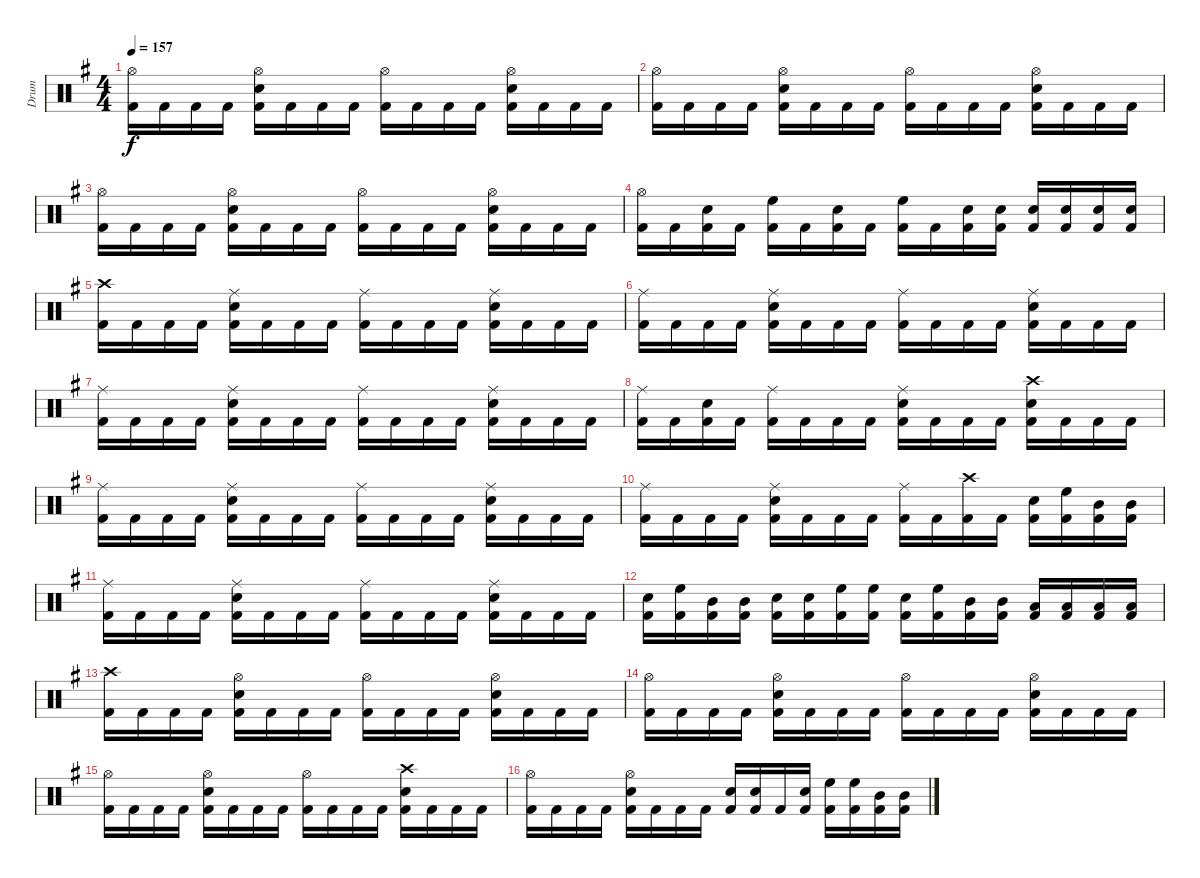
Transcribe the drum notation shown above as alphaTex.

\track ("Drum" "Drum") {instrument percussion}
\staff {score}
\articulation defaults
\ts (4 4)
\tempo 157
\clef neutral
\ks eminor
("Hi-Hat (open)" "Kick (hit) 2").16{dy f} "Kick (hit) 2".16 "Kick (hit) 2".16 "Kick (hit) 2".16 ("Hi-Hat (open)" "Snare (hit) 2" "Kick (hit) 2").16 "Kick (hit) 2".16 "Kick (hit) 2".16 "Kick (hit) 2".16 ("Hi-Hat (open)" "Kick (hit) 2").16 "Kick (hit) 2".16 "Kick (hit) 2".16 "Kick (hit) 2".16 ("Hi-Hat (open)" "Snare (hit) 2" "Kick (hit) 2").16 "Kick (hit) 2".16 "Kick (hit) 2".16 "Kick (hit) 2".16 |
("Hi-Hat (open)" "Kick (hit) 2").16 "Kick (hit) 2".16 "Kick (hit) 2".16 "Kick (hit) 2".16 ("Hi-Hat (open)" "Snare (hit) 2" "Kick (hit) 2").16 "Kick (hit) 2".16 "Kick (hit) 2".16 "Kick (hit) 2".16 ("Hi-Hat (open)" "Kick (hit) 2").16 "Kick (hit) 2".16 "Kick (hit) 2".16 "Kick (hit) 2".16 ("Hi-Hat (open)" "Snare (hit) 2" "Kick (hit) 2").16 "Kick (hit) 2".16 "Kick (hit) 2".16 "Kick (hit) 2".16 |
("Hi-Hat (open)" "Kick (hit) 2").16 "Kick (hit) 2".16 "Kick (hit) 2".16 "Kick (hit) 2".16 ("Hi-Hat (open)" "Snare (hit) 2" "Kick (hit) 2").16 "Kick (hit) 2".16 "Kick (hit) 2".16 "Kick (hit) 2".16 ("Hi-Hat (open)" "Kick (hit) 2").16 "Kick (hit) 2".16 "Kick (hit) 2".16 "Kick (hit) 2".16 ("Hi-Hat (open)" "Snare (hit) 2" "Kick (hit) 2").16 "Kick (hit) 2".16 "Kick (hit) 2".16 "Kick (hit) 2".16 |
("Hi-Hat (open)" "Kick (hit) 2").16 "Kick (hit) 2".16 ("Snare (hit) 2" "Kick (hit) 2").16 "Kick (hit) 2".16 ("High Floor Tom (hit)" "Kick (hit) 2").16 "Kick (hit) 2".16 ("Snare (hit) 2" "Kick (hit) 2").16 "Kick (hit) 2".16 ("High Floor Tom (hit)" "Kick (hit) 2").16 "Kick (hit) 2".16 ("Snare (hit) 2" "Kick (hit) 2").16 ("Snare (hit) 2" "Kick (hit) 2").16 ("Snare (hit) 2" "Kick (hit) 2").16 ("Snare (hit) 2" "Kick (hit) 2").16 ("Snare (hit) 2" "Kick (hit) 2").16 ("Snare (hit) 2" "Kick (hit) 2").16 |
("Crash high (hit)" "Kick (hit) 2").16 "Kick (hit) 2".16 "Kick (hit) 2".16 "Kick (hit) 2".16 ("Ride (middle)" "Snare (hit) 2" "Kick (hit) 2").16 "Kick (hit) 2".16 "Kick (hit) 2".16 "Kick (hit) 2".16 ("Ride (middle)" "Kick (hit) 2").16 "Kick (hit) 2".16 "Kick (hit) 2".16 "Kick (hit) 2".16 ("Ride (middle)" "Snare (hit) 2" "Kick (hit) 2").16 "Kick (hit) 2".16 "Kick (hit) 2".16 "Kick (hit) 2".16 |
("Ride (middle)" "Kick (hit) 2").16 "Kick (hit) 2".16 "Kick (hit) 2".16 "Kick (hit) 2".16 ("Ride (middle)" "Snare (hit) 2" "Kick (hit) 2").16 "Kick (hit) 2".16 "Kick (hit) 2".16 "Kick (hit) 2".16 ("Ride (middle)" "Kick (hit) 2").16 "Kick (hit) 2".16 "Kick (hit) 2".16 "Kick (hit) 2".16 ("Ride (middle)" "Snare (hit) 2" "Kick (hit) 2").16 "Kick (hit) 2".16 "Kick (hit) 2".16 "Kick (hit) 2".16 |
("Ride (middle)" "Kick (hit) 2").16 "Kick (hit) 2".16 "Kick (hit) 2".16 "Kick (hit) 2".16 ("Ride (middle)" "Snare (hit) 2" "Kick (hit) 2").16 "Kick (hit) 2".16 "Kick (hit) 2".16 "Kick (hit) 2".16 ("Ride (middle)" "Kick (hit) 2").16 "Kick (hit) 2".16 "Kick (hit) 2".16 "Kick (hit) 2".16 ("Ride (middle)" "Snare (hit) 2" "Kick (hit) 2").16 "Kick (hit) 2".16 "Kick (hit) 2".16 "Kick (hit) 2".16 |
("Ride (middle)" "Kick (hit) 2").16 "Kick (hit) 2".16 ("Snare (hit) 2" "Kick (hit) 2").16 "Kick (hit) 2".16 ("Ride (middle)" "Kick (hit) 2").16 "Kick (hit) 2".16 "Kick (hit) 2".16 "Kick (hit) 2".16 ("Ride (middle)" "Snare (hit) 2" "Kick (hit) 2").16 "Kick (hit) 2".16 "Kick (hit) 2".16 "Kick (hit) 2".16 ("Crash high (hit)" "Snare (hit) 2" "Kick (hit) 2").16 "Kick (hit) 2".16 "Kick (hit) 2".16 "Kick (hit) 2".16 |
("Ride (middle)" "Kick (hit) 2").16 "Kick (hit) 2".16 "Kick (hit) 2".16 "Kick (hit) 2".16 ("Ride (middle)" "Snare (hit) 2" "Kick (hit) 2").16 "Kick (hit) 2".16 "Kick (hit) 2".16 "Kick (hit) 2".16 ("Ride (middle)" "Kick (hit) 2").16 "Kick (hit) 2".16 "Kick (hit) 2".16 "Kick (hit) 2".16 ("Ride (middle)" "Snare (hit) 2" "Kick (hit) 2").16 "Kick (hit) 2".16 "Kick (hit) 2".16 "Kick (hit) 2".16 |
("Ride (middle)" "Kick (hit) 2").16 "Kick (hit) 2".16 "Kick (hit) 2".16 "Kick (hit) 2".16 ("Ride (middle)" "Snare (hit) 2" "Kick (hit) 2").16 "Kick (hit) 2".16 "Kick (hit) 2".16 "Kick (hit) 2".16 ("Ride (middle)" "Kick (hit) 2").16 "Kick (hit) 2".16 ("Crash high (hit)" "Kick (hit) 2").16 "Kick (hit) 2".16 ("Snare (hit) 2" "Kick (hit) 2").16 ("High Floor Tom (hit)" "Kick (hit) 2").16 ("Mid Tom (hit)" "Kick (hit) 2").16 ("Mid Tom (hit)" "Kick (hit) 2").16 |
("Ride (middle)" "Kick (hit) 2").16 "Kick (hit) 2".16 "Kick (hit) 2".16 "Kick (hit) 2".16 ("Ride (middle)" "Snare (hit) 2" "Kick (hit) 2").16 "Kick (hit) 2".16 "Kick (hit) 2".16 "Kick (hit) 2".16 ("Ride (middle)" "Kick (hit) 2").16 "Kick (hit) 2".16 "Kick (hit) 2".16 "Kick (hit) 2".16 ("Ride (middle)" "Snare (hit) 2" "Kick (hit) 2").16 "Kick (hit) 2".16 "Kick (hit) 2".16 "Kick (hit) 2".16 |
("Snare (hit) 2" "Kick (hit) 2").16 ("High Floor Tom (hit)" "Kick (hit) 2").16 ("Mid Tom (hit)" "Kick (hit) 2").16 ("Mid Tom (hit)" "Kick (hit) 2").16 ("Snare (hit) 2" "Kick (hit) 2").16 ("Snare (hit) 2" "Kick (hit) 2").16 ("High Floor Tom (hit)" "Kick (hit) 2").16 ("High Floor Tom (hit)" "Kick (hit) 2").16 ("Snare (hit) 2" "Kick (hit) 2").16 ("High Floor Tom (hit)" "Kick (hit) 2").16 ("Mid Tom (hit)" "Kick (hit) 2").16 ("Mid Tom (hit)" "Kick (hit) 2").16 ("Low Tom (hit)" "Kick (hit) 2").16 ("Low Tom (hit)" "Kick (hit) 2").16 ("Low Tom (hit)" "Kick (hit) 2").16 ("Low Tom (hit)" "Kick (hit) 2").16 |
("Crash high (hit)" "Kick (hit) 2").16 "Kick (hit) 2".16 "Kick (hit) 2".16 "Kick (hit) 2".16 ("Hi-Hat (open)" "Snare (hit) 2" "Kick (hit) 2").16 "Kick (hit) 2".16 "Kick (hit) 2".16 "Kick (hit) 2".16 ("Hi-Hat (open)" "Kick (hit) 2").16 "Kick (hit) 2".16 "Kick (hit) 2".16 "Kick (hit) 2".16 ("Hi-Hat (open)" "Snare (hit) 2" "Kick (hit) 2").16 "Kick (hit) 2".16 "Kick (hit) 2".16 "Kick (hit) 2".16 |
("Hi-Hat (open)" "Kick (hit) 2").16 "Kick (hit) 2".16 "Kick (hit) 2".16 "Kick (hit) 2".16 ("Hi-Hat (open)" "Snare (hit) 2" "Kick (hit) 2").16 "Kick (hit) 2".16 "Kick (hit) 2".16 "Kick (hit) 2".16 ("Hi-Hat (open)" "Kick (hit) 2").16 "Kick (hit) 2".16 "Kick (hit) 2".16 "Kick (hit) 2".16 ("Hi-Hat (open)" "Snare (hit) 2" "Kick (hit) 2").16 "Kick (hit) 2".16 "Kick (hit) 2".16 "Kick (hit) 2".16 |
("Hi-Hat (open)" "Kick (hit) 2").16 "Kick (hit) 2".16 "Kick (hit) 2".16 "Kick (hit) 2".16 ("Hi-Hat (open)" "Snare (hit) 2" "Kick (hit) 2").16 "Kick (hit) 2".16 "Kick (hit) 2".16 "Kick (hit) 2".16 ("Hi-Hat (open)" "Kick (hit) 2").16 "Kick (hit) 2".16 "Kick (hit) 2".16 "Kick (hit) 2".16 ("Crash high (hit)" "Snare (hit) 2" "Kick (hit) 2").16 "Kick (hit) 2".16 "Kick (hit) 2".16 "Kick (hit) 2".16 |
("Hi-Hat (open)" "Kick (hit) 2").16 "Kick (hit) 2".16 "Kick (hit) 2".16 "Kick (hit) 2".16 ("Hi-Hat (open)" "Snare (hit) 2" "Kick (hit) 2").16 "Kick (hit) 2".16 "Kick (hit) 2".16 "Kick (hit) 2".16 ("Snare (hit) 2" "Kick (hit) 2").16 ("Snare (hit) 2" "Kick (hit) 2").16 "Kick (hit) 2".16 ("Snare (hit) 2" "Kick (hit) 2").16 ("High Floor Tom (hit)" "Kick (hit) 2").16 ("High Floor Tom (hit)" "Kick (hit) 2").16 ("Mid Tom (hit)" "Kick (hit) 2").16 ("Mid Tom (hit)" "Kick (hit) 2").16
